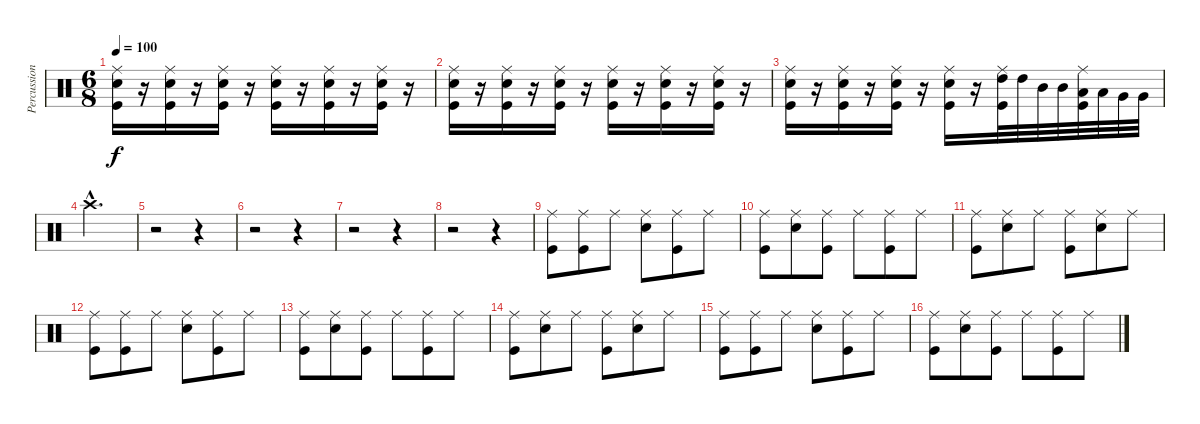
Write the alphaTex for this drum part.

\track ("Percussions" "Percussion") {instrument percussion}
\staff {score}
\articulation defaults
\ts (6 8)
\tempo 100
\clef neutral
\ks c
("Ride (middle)" "Electric Snare (hit)" "Kick (hit)").16{dy f} r.16 ("Ride (middle)" "Electric Snare (hit)" "Kick (hit)").16 r.16 ("Ride (middle)" "Electric Snare (hit)" "Kick (hit)").16 r.16 ("Ride (middle)" "Electric Snare (hit)" "Kick (hit)").16 r.16 ("Ride (middle)" "Electric Snare (hit)" "Kick (hit)").16 r.16 ("Ride (middle)" "Electric Snare (hit)" "Kick (hit)").16 r.16 |
("Ride (middle)" "Electric Snare (hit)" "Kick (hit)").16 r.16 ("Ride (middle)" "Electric Snare (hit)" "Kick (hit)").16 r.16 ("Ride (middle)" "Electric Snare (hit)" "Kick (hit)").16 r.16 ("Ride (middle)" "Electric Snare (hit)" "Kick (hit)").16 r.16 ("Ride (middle)" "Electric Snare (hit)" "Kick (hit)").16 r.16 ("Ride (middle)" "Electric Snare (hit)" "Kick (hit)").16 r.16 |
("Ride (middle)" "Electric Snare (hit)" "Kick (hit)").16 r.16 ("Ride (middle)" "Electric Snare (hit)" "Kick (hit)").16 r.16 ("Ride (middle)" "Electric Snare (hit)" "Kick (hit)").16 r.16 ("Ride (middle)" "Electric Snare (hit)" "Kick (hit)").16 r.16 ("Ride (middle)" "High Tom (hit)" "Kick (hit)").32 "High Tom (hit)".32 "Mid Tom (hit)".32 "Mid Tom (hit)".32 ("Ride (middle)" "Low Tom (hit)" "Kick (hit)").32 "Low Tom (hit)".32 "Very Low Tom (hit)".32 "Very Low Tom (hit)".32 |
"Crash high (hit)"{hac}.2{d} |
r.2 r.4 |
r.2 r.4 |
r.2 r.4 |
r.2 r.4 |
("Ride (middle)" "Kick (hit)").8 ("Ride (middle)" "Kick (hit)").8 "Ride (middle)".8 ("Ride (middle)" "Electric Snare (hit)").8 ("Ride (middle)" "Kick (hit)").8 "Ride (middle)".8 |
("Ride (middle)" "Kick (hit)").8 ("Ride (middle)" "Electric Snare (hit)").8 ("Ride (middle)" "Kick (hit)").8 "Ride (middle)".8 ("Ride (middle)" "Kick (hit)").8 "Ride (middle)".8 |
("Ride (middle)" "Kick (hit)").8 ("Ride (middle)" "Electric Snare (hit)").8 "Ride (middle)".8 ("Ride (middle)" "Kick (hit)").8 ("Ride (middle)" "Electric Snare (hit)").8 "Ride (middle)".8 |
("Ride (middle)" "Kick (hit)").8 ("Ride (middle)" "Kick (hit)").8 "Ride (middle)".8 ("Ride (middle)" "Electric Snare (hit)").8 ("Ride (middle)" "Kick (hit)").8 "Ride (middle)".8 |
("Ride (middle)" "Kick (hit)").8 ("Ride (middle)" "Electric Snare (hit)").8 ("Ride (middle)" "Kick (hit)").8 "Ride (middle)".8 ("Ride (middle)" "Kick (hit)").8 "Ride (middle)".8 |
("Ride (middle)" "Kick (hit)").8 ("Ride (middle)" "Electric Snare (hit)").8 "Ride (middle)".8 ("Ride (middle)" "Kick (hit)").8 ("Ride (middle)" "Electric Snare (hit)").8 "Ride (middle)".8 |
("Ride (middle)" "Kick (hit)").8 ("Ride (middle)" "Kick (hit)").8 "Ride (middle)".8 ("Ride (middle)" "Electric Snare (hit)").8 ("Ride (middle)" "Kick (hit)").8 "Ride (middle)".8 |
("Ride (middle)" "Kick (hit)").8 ("Ride (middle)" "Electric Snare (hit)").8 ("Ride (middle)" "Kick (hit)").8 "Ride (middle)".8 ("Ride (middle)" "Kick (hit)").8 "Ride (middle)".8
